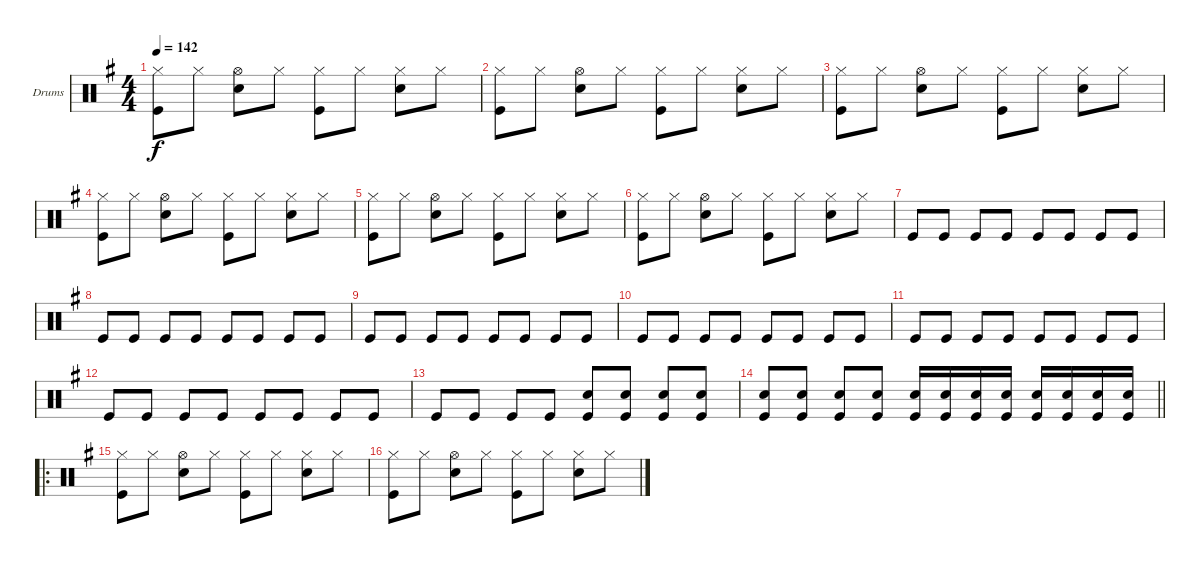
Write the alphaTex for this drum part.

\bracketExtendMode groupsimilarinstruments
\firstSystemTrackNameOrientation horizontal
\otherSystemsTrackNameOrientation horizontal
\track ("Drumkit" "Drums") {instrument percussion}
\staff {score}
\articulation defaults
\ts (4 4)
\tempo 142
\clef neutral
\ks g
("Hi-Hat (closed)" "Kick (hit)").8{dy f} "Hi-Hat (closed)".8 ("Hi-Hat (open)" "Snare (hit) 2").8 "Hi-Hat (closed)".8 ("Hi-Hat (closed)" "Kick (hit)").8 "Hi-Hat (closed)".8 ("Hi-Hat (closed)" "Snare (hit) 2").8 "Hi-Hat (closed)".8 |
("Hi-Hat (closed)" "Kick (hit)").8 "Hi-Hat (closed)".8 ("Hi-Hat (open)" "Snare (hit) 2").8 "Hi-Hat (closed)".8 ("Hi-Hat (closed)" "Kick (hit)").8 "Hi-Hat (closed)".8 ("Hi-Hat (closed)" "Snare (hit) 2").8 "Hi-Hat (closed)".8 |
("Hi-Hat (closed)" "Kick (hit)").8 "Hi-Hat (closed)".8 ("Hi-Hat (open)" "Snare (hit) 2").8 "Hi-Hat (closed)".8 ("Hi-Hat (closed)" "Kick (hit)").8 "Hi-Hat (closed)".8 ("Hi-Hat (closed)" "Snare (hit) 2").8 "Hi-Hat (closed)".8 |
("Hi-Hat (closed)" "Kick (hit)").8 "Hi-Hat (closed)".8 ("Hi-Hat (open)" "Snare (hit) 2").8 "Hi-Hat (closed)".8 ("Hi-Hat (closed)" "Kick (hit)").8 "Hi-Hat (closed)".8 ("Hi-Hat (closed)" "Snare (hit) 2").8 "Hi-Hat (closed)".8 |
("Hi-Hat (closed)" "Kick (hit)").8 "Hi-Hat (closed)".8 ("Hi-Hat (open)" "Snare (hit) 2").8 "Hi-Hat (closed)".8 ("Hi-Hat (closed)" "Kick (hit)").8 "Hi-Hat (closed)".8 ("Hi-Hat (closed)" "Snare (hit) 2").8 "Hi-Hat (closed)".8 |
("Hi-Hat (closed)" "Kick (hit)").8 "Hi-Hat (closed)".8 ("Hi-Hat (open)" "Snare (hit) 2").8 "Hi-Hat (closed)".8 ("Hi-Hat (closed)" "Kick (hit)").8 "Hi-Hat (closed)".8 ("Hi-Hat (closed)" "Snare (hit) 2").8 "Hi-Hat (closed)".8 |
"Kick (hit)".8 "Kick (hit)".8 "Kick (hit)".8 "Kick (hit)".8 "Kick (hit)".8 "Kick (hit)".8 "Kick (hit)".8 "Kick (hit)".8 |
"Kick (hit)".8 "Kick (hit)".8 "Kick (hit)".8 "Kick (hit)".8 "Kick (hit)".8 "Kick (hit)".8 "Kick (hit)".8 "Kick (hit)".8 |
"Kick (hit)".8 "Kick (hit)".8 "Kick (hit)".8 "Kick (hit)".8 "Kick (hit)".8 "Kick (hit)".8 "Kick (hit)".8 "Kick (hit)".8 |
"Kick (hit)".8 "Kick (hit)".8 "Kick (hit)".8 "Kick (hit)".8 "Kick (hit)".8 "Kick (hit)".8 "Kick (hit)".8 "Kick (hit)".8 |
"Kick (hit)".8 "Kick (hit)".8 "Kick (hit)".8 "Kick (hit)".8 "Kick (hit)".8 "Kick (hit)".8 "Kick (hit)".8 "Kick (hit)".8 |
"Kick (hit)".8 "Kick (hit)".8 "Kick (hit)".8 "Kick (hit)".8 "Kick (hit)".8 "Kick (hit)".8 "Kick (hit)".8 "Kick (hit)".8 |
"Kick (hit)".8 "Kick (hit)".8 "Kick (hit)".8 "Kick (hit)".8 ("Kick (hit)" "Snare (hit) 2").8 ("Kick (hit)" "Snare (hit) 2").8 ("Kick (hit)" "Snare (hit) 2").8 ("Kick (hit)" "Snare (hit) 2").8 |
\barLineRight lightlight
("Kick (hit)" "Snare (hit) 2").8 ("Kick (hit)" "Snare (hit) 2").8 ("Kick (hit)" "Snare (hit) 2").8 ("Kick (hit)" "Snare (hit) 2").8 ("Snare (hit) 2" "Kick (hit)").16 ("Snare (hit) 2" "Kick (hit)").16 ("Snare (hit) 2" "Kick (hit)").16 ("Snare (hit) 2" "Kick (hit)").16 ("Snare (hit) 2" "Kick (hit)").16 ("Snare (hit) 2" "Kick (hit)").16 ("Snare (hit) 2" "Kick (hit)").16 ("Snare (hit) 2" "Kick (hit)").16 |
\ro
("Hi-Hat (closed)" "Kick (hit)").8 "Hi-Hat (closed)".8 ("Hi-Hat (open)" "Snare (hit) 2").8 "Hi-Hat (closed)".8 ("Hi-Hat (closed)" "Kick (hit)").8 "Hi-Hat (closed)".8 ("Hi-Hat (closed)" "Snare (hit) 2").8 "Hi-Hat (closed)".8 |
("Hi-Hat (closed)" "Kick (hit)").8 "Hi-Hat (closed)".8 ("Hi-Hat (open)" "Snare (hit) 2").8 "Hi-Hat (closed)".8 ("Hi-Hat (closed)" "Kick (hit)").8 "Hi-Hat (closed)".8 ("Hi-Hat (closed)" "Snare (hit) 2").8 "Hi-Hat (closed)".8
